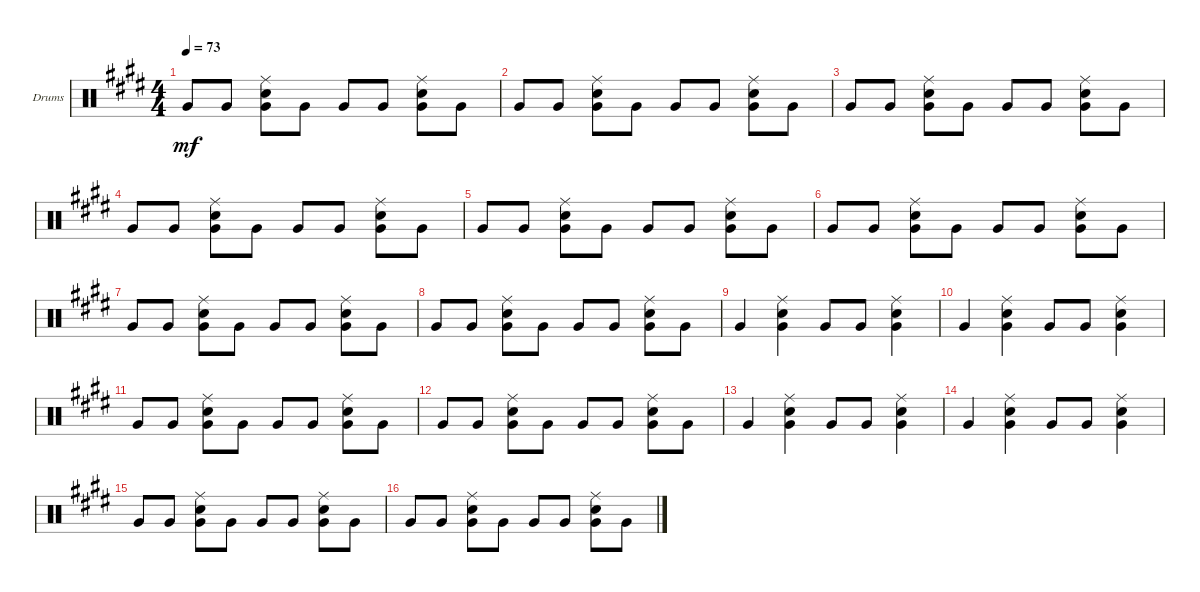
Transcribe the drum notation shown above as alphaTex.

\defaultSystemsLayout 4
\bracketExtendMode groupsimilarinstruments
\firstSystemTrackNameOrientation horizontal
\otherSystemsTrackNameOrientation horizontal
\track ("Drumkit" "Drums") {instrument percussion}
\staff {score}
\articulation defaults
\ts (4 4)
\tempo 73
\clef neutral
\ks e "Very Low Tom (hit)".8{dy mf} "Very Low Tom (hit)".8
("Very Low Tom (hit)" "Snare (hit) 2" "Ride (middle)").8 "Very Low Tom (hit)".8 "Very Low Tom (hit)".8 "Very Low Tom (hit)".8 ("Very Low Tom (hit)" "Snare (hit) 2" "Ride (middle)").8 "Very Low Tom (hit)".8 |
"Very Low Tom (hit)".8 "Very Low Tom (hit)".8 ("Very Low Tom (hit)" "Snare (hit) 2" "Ride (middle)").8 "Very Low Tom (hit)".8 "Very Low Tom (hit)".8 "Very Low Tom (hit)".8 ("Very Low Tom (hit)" "Snare (hit) 2" "Ride (middle)").8 "Very Low Tom (hit)".8 |
"Very Low Tom (hit)".8 "Very Low Tom (hit)".8 ("Very Low Tom (hit)" "Snare (hit) 2" "Ride (middle)").8 "Very Low Tom (hit)".8 "Very Low Tom (hit)".8 "Very Low Tom (hit)".8 ("Very Low Tom (hit)" "Snare (hit) 2" "Ride (middle)").8 "Very Low Tom (hit)".8 |
"Very Low Tom (hit)".8 "Very Low Tom (hit)".8 ("Very Low Tom (hit)" "Snare (hit) 2" "Ride (middle)").8 "Very Low Tom (hit)".8 "Very Low Tom (hit)".8 "Very Low Tom (hit)".8 ("Very Low Tom (hit)" "Snare (hit) 2" "Ride (middle)").8 "Very Low Tom (hit)".8 |
"Very Low Tom (hit)".8 "Very Low Tom (hit)".8 ("Very Low Tom (hit)" "Snare (hit) 2" "Ride (middle)").8 "Very Low Tom (hit)".8 "Very Low Tom (hit)".8 "Very Low Tom (hit)".8 ("Very Low Tom (hit)" "Snare (hit) 2" "Ride (middle)").8 "Very Low Tom (hit)".8 |
"Very Low Tom (hit)".8 "Very Low Tom (hit)".8 ("Very Low Tom (hit)" "Snare (hit) 2" "Ride (middle)").8 "Very Low Tom (hit)".8 "Very Low Tom (hit)".8 "Very Low Tom (hit)".8 ("Very Low Tom (hit)" "Snare (hit) 2" "Ride (middle)").8 "Very Low Tom (hit)".8 |
"Very Low Tom (hit)".8 "Very Low Tom (hit)".8 ("Very Low Tom (hit)" "Snare (hit) 2" "Ride (middle)").8 "Very Low Tom (hit)".8 "Very Low Tom (hit)".8 "Very Low Tom (hit)".8 ("Very Low Tom (hit)" "Snare (hit) 2" "Ride (middle)").8 "Very Low Tom (hit)".8 |
"Very Low Tom (hit)".8 "Very Low Tom (hit)".8 ("Very Low Tom (hit)" "Snare (hit) 2" "Ride (middle)").8 "Very Low Tom (hit)".8 "Very Low Tom (hit)".8 "Very Low Tom (hit)".8 ("Very Low Tom (hit)" "Snare (hit) 2" "Ride (middle)").8 "Very Low Tom (hit)".8 |
"Very Low Tom (hit)".4 ("Very Low Tom (hit)" "Snare (hit) 2" "Ride (middle)").4 "Very Low Tom (hit)".8 "Very Low Tom (hit)".8 ("Very Low Tom (hit)" "Snare (hit) 2" "Ride (middle)").4 |
"Very Low Tom (hit)".4 ("Very Low Tom (hit)" "Snare (hit) 2" "Ride (middle)").4 "Very Low Tom (hit)".8 "Very Low Tom (hit)".8 ("Very Low Tom (hit)" "Snare (hit) 2" "Ride (middle)").4 |
"Very Low Tom (hit)".8 "Very Low Tom (hit)".8 ("Very Low Tom (hit)" "Snare (hit) 2" "Ride (middle)").8 "Very Low Tom (hit)".8 "Very Low Tom (hit)".8 "Very Low Tom (hit)".8 ("Very Low Tom (hit)" "Snare (hit) 2" "Ride (middle)").8 "Very Low Tom (hit)".8 |
"Very Low Tom (hit)".8 "Very Low Tom (hit)".8 ("Very Low Tom (hit)" "Snare (hit) 2" "Ride (middle)").8 "Very Low Tom (hit)".8 "Very Low Tom (hit)".8 "Very Low Tom (hit)".8 ("Very Low Tom (hit)" "Snare (hit) 2" "Ride (middle)").8 "Very Low Tom (hit)".8 |
"Very Low Tom (hit)".4 ("Very Low Tom (hit)" "Snare (hit) 2" "Ride (middle)").4 "Very Low Tom (hit)".8 "Very Low Tom (hit)".8 ("Very Low Tom (hit)" "Snare (hit) 2" "Ride (middle)").4 |
"Very Low Tom (hit)".4 ("Very Low Tom (hit)" "Snare (hit) 2" "Ride (middle)").4 "Very Low Tom (hit)".8 "Very Low Tom (hit)".8 ("Very Low Tom (hit)" "Snare (hit) 2" "Ride (middle)").4 |
"Very Low Tom (hit)".8 "Very Low Tom (hit)".8 ("Very Low Tom (hit)" "Snare (hit) 2" "Ride (middle)").8 "Very Low Tom (hit)".8 "Very Low Tom (hit)".8 "Very Low Tom (hit)".8 ("Very Low Tom (hit)" "Snare (hit) 2" "Ride (middle)").8 "Very Low Tom (hit)".8 |
"Very Low Tom (hit)".8 "Very Low Tom (hit)".8 ("Very Low Tom (hit)" "Snare (hit) 2" "Ride (middle)").8 "Very Low Tom (hit)".8 "Very Low Tom (hit)".8 "Very Low Tom (hit)".8 ("Very Low Tom (hit)" "Snare (hit) 2" "Ride (middle)").8 "Very Low Tom (hit)".8
